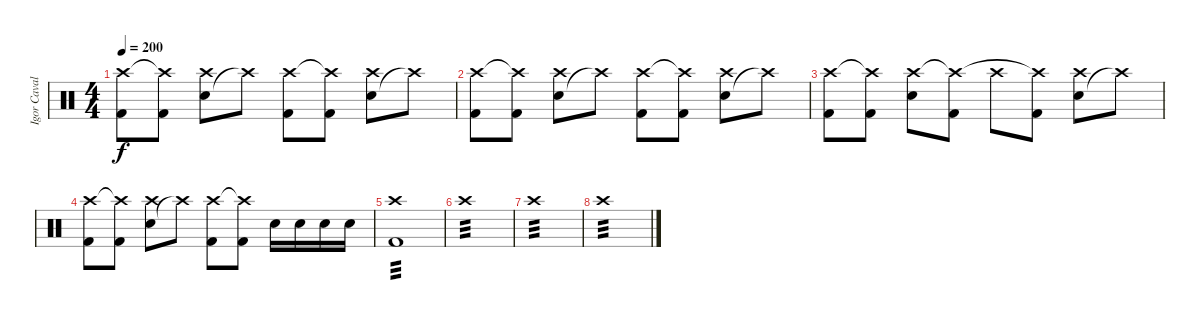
\track ("Igor Cavalera" "Igor Caval") {instrument percussion}
\staff {score}
\articulation defaults
\ts (4 4)
\tempo 200
\clef neutral
\ks c
("Kick (hit) 2" "Crash high (hit)").8{dy f} ("Kick (hit) 2" "Crash high (hit)"{t}).8 ("Snare (hit) 2" "Crash high (hit)").8 "Crash high (hit)"{t}.8 ("Kick (hit) 2" "Crash high (hit)").8 ("Kick (hit) 2" "Crash high (hit)"{t}).8 ("Snare (hit) 2" "Crash high (hit)").8 "Crash high (hit)"{t}.8 |
("Kick (hit) 2" "Crash high (hit)").8 ("Kick (hit) 2" "Crash high (hit)"{t}).8 ("Snare (hit) 2" "Crash high (hit)").8 "Crash high (hit)"{t}.8 ("Kick (hit) 2" "Crash high (hit)").8 ("Kick (hit) 2" "Crash high (hit)"{t}).8 ("Snare (hit) 2" "Crash high (hit)").8 "Crash high (hit)"{t}.8 |
("Kick (hit) 2" "Crash high (hit)").8 ("Kick (hit) 2" "Crash high (hit)"{t}).8 ("Snare (hit) 2" "Crash high (hit)").8 ("Kick (hit) 2" "Crash high (hit)"{t}).8 "Crash high (hit)".8 ("Kick (hit) 2" "Crash high (hit)"{t}).8 ("Snare (hit) 2" "Crash high (hit)").8 "Crash high (hit)"{t}.8 |
("Kick (hit) 2" "Crash high (hit)").8 ("Kick (hit) 2" "Crash high (hit)"{t}).8 ("Snare (hit) 2" "Crash high (hit)").8 "Crash high (hit)"{t}.8 ("Kick (hit) 2" "Crash high (hit)").8 ("Kick (hit) 2" "Crash high (hit)"{t}).8 "Snare (hit) 2".16 "Snare (hit) 2".16 "Snare (hit) 2".16 "Snare (hit) 2".16 |
("Kick (hit) 2" "Crash high (hit)").1{tp 3} |
"Crash high (hit)".1{tp 3} |
"Crash high (hit)".1{tp 3} |
"Crash high (hit)".1{tp 3}
